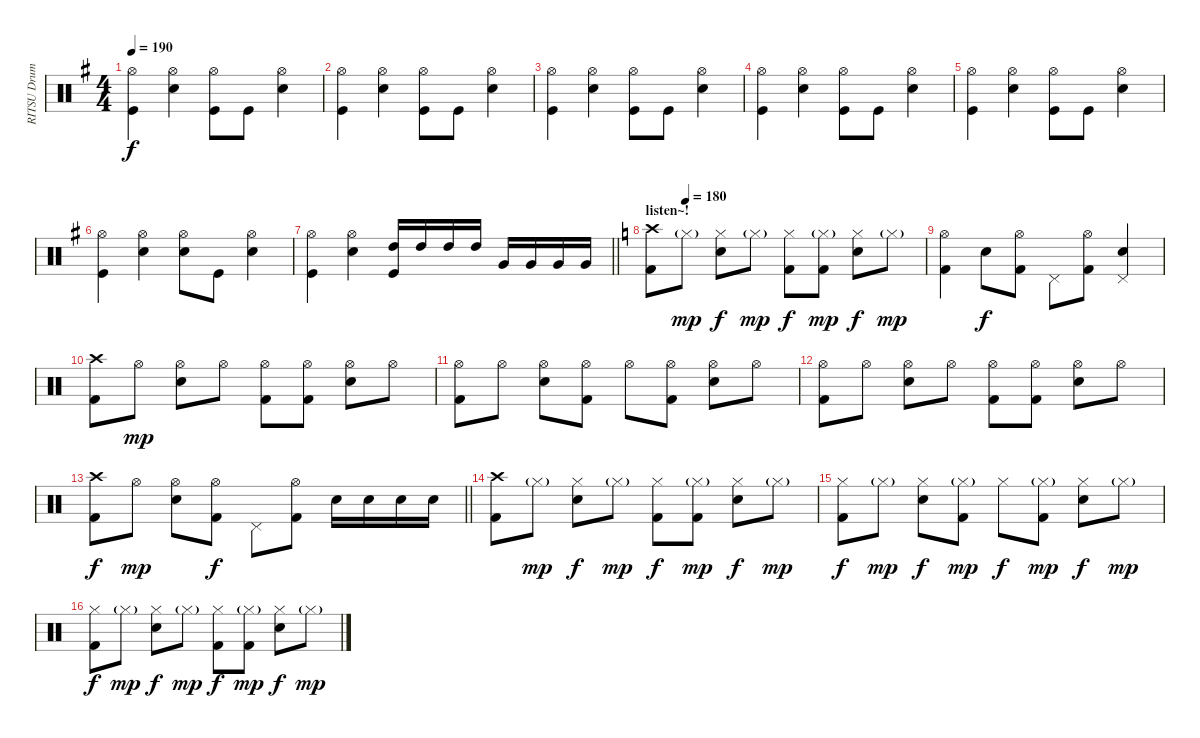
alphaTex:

\track ("RITSU Drums" "RITSU Drum") {instrument percussion}
\staff {score}
\articulation defaults
\ts (4 4)
\tempo 190
\clef neutral
\ks g
("Kick (hit)" "Hi-Hat (open)").4{dy f} ("Hi-Hat (open)" "Snare (hit) 2").4 ("Kick (hit)" "Hi-Hat (open)").8 "Kick (hit)".8 ("Snare (hit) 2" "Hi-Hat (open)").4 |
("Kick (hit)" "Hi-Hat (open)").4 ("Hi-Hat (open)" "Snare (hit) 2").4 ("Kick (hit)" "Hi-Hat (open)").8 "Kick (hit)".8 ("Snare (hit) 2" "Hi-Hat (open)").4 |
("Kick (hit)" "Hi-Hat (open)").4 ("Hi-Hat (open)" "Snare (hit) 2").4 ("Kick (hit)" "Hi-Hat (open)").8 "Kick (hit)".8 ("Snare (hit) 2" "Hi-Hat (open)").4 |
("Kick (hit)" "Hi-Hat (open)").4 ("Hi-Hat (open)" "Snare (hit) 2").4 ("Kick (hit)" "Hi-Hat (open)").8 "Kick (hit)".8 ("Snare (hit) 2" "Hi-Hat (open)").4 |
("Kick (hit)" "Hi-Hat (open)").4 ("Hi-Hat (open)" "Snare (hit) 2").4 ("Kick (hit)" "Hi-Hat (open)").8 "Kick (hit)".8 ("Snare (hit) 2" "Hi-Hat (open)").4 |
("Kick (hit)" "Hi-Hat (open)").4 ("Hi-Hat (open)" "Snare (hit) 2").4 ("Snare (hit) 2" "Hi-Hat (open)").8 "Kick (hit)".8 ("Snare (hit) 2" "Hi-Hat (open)").4 |
\barLineRight lightlight
("Hi-Hat (open)" "Kick (hit)").4 ("Hi-Hat (open)" "Snare (hit) 2").4 ("Kick (hit)" "High Tom (hit)").16 "High Tom (hit)".16 "High Tom (hit)".16 "High Tom (hit)".16 "Very Low Tom (hit)".16 "Very Low Tom (hit)".16 "Very Low Tom (hit)".16 "Very Low Tom (hit)".16 |
\section ("" "listen~!")
\tempo (180 0.125)
\ks c
("Crash high (hit)" "Kick (hit) 2").8 "Hi-Hat (closed)"{g}.8{dy mp} ("Hi-Hat (closed)" "Snare (hit) 2").8{dy f} "Hi-Hat (closed)"{g}.8{dy mp} ("Hi-Hat (closed)" "Kick (hit) 2").8{dy f} ("Hi-Hat (closed)"{g} "Kick (hit) 2").8{dy mp} ("Hi-Hat (closed)" "Snare (hit) 2").8{dy f} "Hi-Hat (closed)"{g}.8{dy mp} |
("Hi-Hat (open)" "Kick (hit) 2").4 "Snare (hit) 2".8{dy f} ("Hi-Hat (open)" "Kick (hit) 2").8 "Pedal Hi-Hat (hit)".8 ("Hi-Hat (open)" "Kick (hit) 2").8 ("Pedal Hi-Hat (hit)" "Snare (hit) 2").4 |
("Crash high (hit)" "Kick (hit) 2").8 "Hi-Hat (open)".8{dy mp} ("Hi-Hat (open)" "Snare (hit) 2").8 "Hi-Hat (open)".8 ("Hi-Hat (open)" "Kick (hit) 2").8 ("Hi-Hat (open)" "Kick (hit) 2").8 ("Hi-Hat (open)" "Snare (hit) 2").8 "Hi-Hat (open)".8 |
("Hi-Hat (open)" "Kick (hit) 2").8 "Hi-Hat (open)".8 ("Hi-Hat (open)" "Snare (hit) 2").8 ("Hi-Hat (open)" "Kick (hit) 2").8 "Hi-Hat (open)".8 ("Hi-Hat (open)" "Kick (hit) 2").8 ("Hi-Hat (open)" "Snare (hit) 2").8 "Hi-Hat (open)".8 |
("Hi-Hat (open)" "Kick (hit) 2").8 "Hi-Hat (open)".8 ("Hi-Hat (open)" "Snare (hit) 2").8 "Hi-Hat (open)".8 ("Hi-Hat (open)" "Kick (hit) 2").8 ("Hi-Hat (open)" "Kick (hit) 2").8 ("Hi-Hat (open)" "Snare (hit) 2").8 "Hi-Hat (open)".8 |
\barLineRight lightlight
("Crash high (hit)" "Kick (hit) 2").8{dy f} "Hi-Hat (open)".8{dy mp} ("Hi-Hat (open)" "Snare (hit) 2").8 ("Hi-Hat (open)" "Kick (hit) 2").8{dy f} "Pedal Hi-Hat (hit)".8 ("Hi-Hat (open)" "Kick (hit) 2").8 "Snare (hit) 2".16 "Snare (hit) 2".16 "Snare (hit) 2".16 "Snare (hit) 2".16 |
("Crash high (hit)" "Kick (hit) 2").8 "Hi-Hat (closed)"{g}.8{dy mp} ("Hi-Hat (closed)" "Snare (hit) 2").8{dy f} "Hi-Hat (closed)"{g}.8{dy mp} ("Hi-Hat (closed)" "Kick (hit) 2").8{dy f} ("Hi-Hat (closed)"{g} "Kick (hit) 2").8{dy mp} ("Hi-Hat (closed)" "Snare (hit) 2").8{dy f} "Hi-Hat (closed)"{g}.8{dy mp} |
("Hi-Hat (closed)" "Kick (hit) 2").8{dy f} "Hi-Hat (closed)"{g}.8{dy mp} ("Hi-Hat (closed)" "Snare (hit) 2").8{dy f} ("Hi-Hat (closed)"{g} "Kick (hit) 2").8{dy mp} "Hi-Hat (closed)".8{dy f} ("Hi-Hat (closed)"{g} "Kick (hit) 2").8{dy mp} ("Hi-Hat (closed)" "Snare (hit) 2").8{dy f} "Hi-Hat (closed)"{g}.8{dy mp} |
("Hi-Hat (closed)" "Kick (hit) 2").8{dy f} "Hi-Hat (closed)"{g}.8{dy mp} ("Hi-Hat (closed)" "Snare (hit) 2").8{dy f} "Hi-Hat (closed)"{g}.8{dy mp} ("Hi-Hat (closed)" "Kick (hit) 2").8{dy f} ("Hi-Hat (closed)"{g} "Kick (hit) 2").8{dy mp} ("Hi-Hat (closed)" "Snare (hit) 2").8{dy f} "Hi-Hat (closed)"{g}.8{dy mp}
